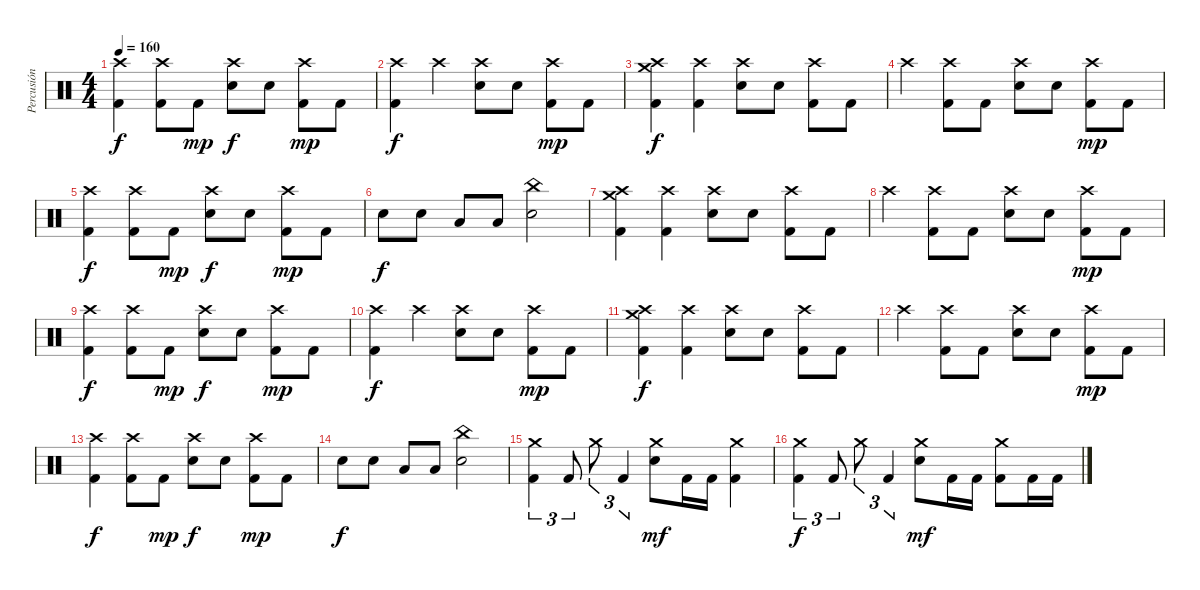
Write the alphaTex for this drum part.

\track ("Percusión" "Percusión") {instrument percussion}
\staff {score}
\articulation defaults
\ts (4 4)
\tempo 160
\clef neutral
\ks c
("Crash high (hit)" "Kick (hit) 2").4{dy f} ("Crash high (hit)" "Kick (hit) 2").8 "Kick (hit) 2".8{dy mp} ("Electric Snare (hit)" "Crash high (hit)").8{dy f} "Electric Snare (hit)".8 ("Crash high (hit)" "Kick (hit) 2").8{dy mp} "Kick (hit) 2".8 |
("Crash high (hit)" "Kick (hit) 2").4{dy f} "Crash high (hit)".4 ("Electric Snare (hit)" "Crash high (hit)").8 "Electric Snare (hit)".8 ("Crash high (hit)" "Kick (hit) 2").8{dy mp} "Kick (hit) 2".8 |
("Crash medium (hit)" "Crash high (hit)" "Kick (hit) 2").4{dy f} ("Crash high (hit)" "Kick (hit) 2").4 ("Electric Snare (hit)" "Crash high (hit)").8 "Electric Snare (hit)".8 ("Crash high (hit)" "Kick (hit) 2").8 "Kick (hit) 2".8 |
"Crash high (hit)".4 ("Crash high (hit)" "Kick (hit) 2").8 "Kick (hit) 2".8 ("Electric Snare (hit)" "Crash high (hit)").8 "Electric Snare (hit)".8 ("Crash high (hit)" "Kick (hit) 2").8{dy mp} "Kick (hit) 2".8 |
("Crash high (hit)" "Kick (hit) 2").4{dy f} ("Crash high (hit)" "Kick (hit) 2").8 "Kick (hit) 2".8{dy mp} ("Electric Snare (hit)" "Crash high (hit)").8{dy f} "Electric Snare (hit)".8 ("Crash high (hit)" "Kick (hit) 2").8{dy mp} "Kick (hit) 2".8 |
"Electric Snare (hit)".8{dy f} "Electric Snare (hit)".8 "Low Tom (hit)".8 "Low Tom (hit)".8 ("Electric Snare (hit)" "China (hit)").2 |
("Crash medium (hit)" "Crash high (hit)" "Kick (hit) 2").4 ("Crash high (hit)" "Kick (hit) 2").4 ("Electric Snare (hit)" "Crash high (hit)").8 "Electric Snare (hit)".8 ("Crash high (hit)" "Kick (hit) 2").8 "Kick (hit) 2".8 |
"Crash high (hit)".4 ("Crash high (hit)" "Kick (hit) 2").8 "Kick (hit) 2".8 ("Electric Snare (hit)" "Crash high (hit)").8 "Electric Snare (hit)".8 ("Crash high (hit)" "Kick (hit) 2").8{dy mp} "Kick (hit) 2".8 |
("Crash high (hit)" "Kick (hit) 2").4{dy f} ("Crash high (hit)" "Kick (hit) 2").8 "Kick (hit) 2".8{dy mp} ("Electric Snare (hit)" "Crash high (hit)").8{dy f} "Electric Snare (hit)".8 ("Crash high (hit)" "Kick (hit) 2").8{dy mp} "Kick (hit) 2".8 |
("Crash high (hit)" "Kick (hit) 2").4{dy f} "Crash high (hit)".4 ("Electric Snare (hit)" "Crash high (hit)").8 "Electric Snare (hit)".8 ("Crash high (hit)" "Kick (hit) 2").8{dy mp} "Kick (hit) 2".8 |
("Crash medium (hit)" "Crash high (hit)" "Kick (hit) 2").4{dy f} ("Crash high (hit)" "Kick (hit) 2").4 ("Electric Snare (hit)" "Crash high (hit)").8 "Electric Snare (hit)".8 ("Crash high (hit)" "Kick (hit) 2").8 "Kick (hit) 2".8 |
"Crash high (hit)".4 ("Crash high (hit)" "Kick (hit) 2").8 "Kick (hit) 2".8 ("Electric Snare (hit)" "Crash high (hit)").8 "Electric Snare (hit)".8 ("Crash high (hit)" "Kick (hit) 2").8{dy mp} "Kick (hit) 2".8 |
("Crash high (hit)" "Kick (hit) 2").4{dy f} ("Crash high (hit)" "Kick (hit) 2").8 "Kick (hit) 2".8{dy mp} ("Electric Snare (hit)" "Crash high (hit)").8{dy f} "Electric Snare (hit)".8 ("Crash high (hit)" "Kick (hit) 2").8{dy mp} "Kick (hit) 2".8 |
"Electric Snare (hit)".8{dy f} "Electric Snare (hit)".8 "Low Tom (hit)".8 "Low Tom (hit)".8 ("Electric Snare (hit)" "China (hit)").2 |
("Crash medium (hit)" "Kick (hit) 2").4{tu (3 2)} "Kick (hit) 2".8{tu (3 2)} "Crash medium (hit)".8{tu (3 2)} "Kick (hit) 2".4{tu (3 2)} ("Electric Snare (hit)" "Crash medium (hit)").8{dy mf} "Kick (hit) 2".16 "Kick (hit) 2".16 ("Crash medium (hit)" "Kick (hit) 2").4 |
("Crash medium (hit)" "Kick (hit) 2").4{tu (3 2) dy f} "Kick (hit) 2".8{tu (3 2)} "Crash medium (hit)".8{tu (3 2)} "Kick (hit) 2".4{tu (3 2)} ("Electric Snare (hit)" "Crash medium (hit)").8{dy mf} "Kick (hit) 2".16 "Kick (hit) 2".16 ("Crash medium (hit)" "Kick (hit) 2").8 "Kick (hit) 2".16 "Kick (hit) 2".16
